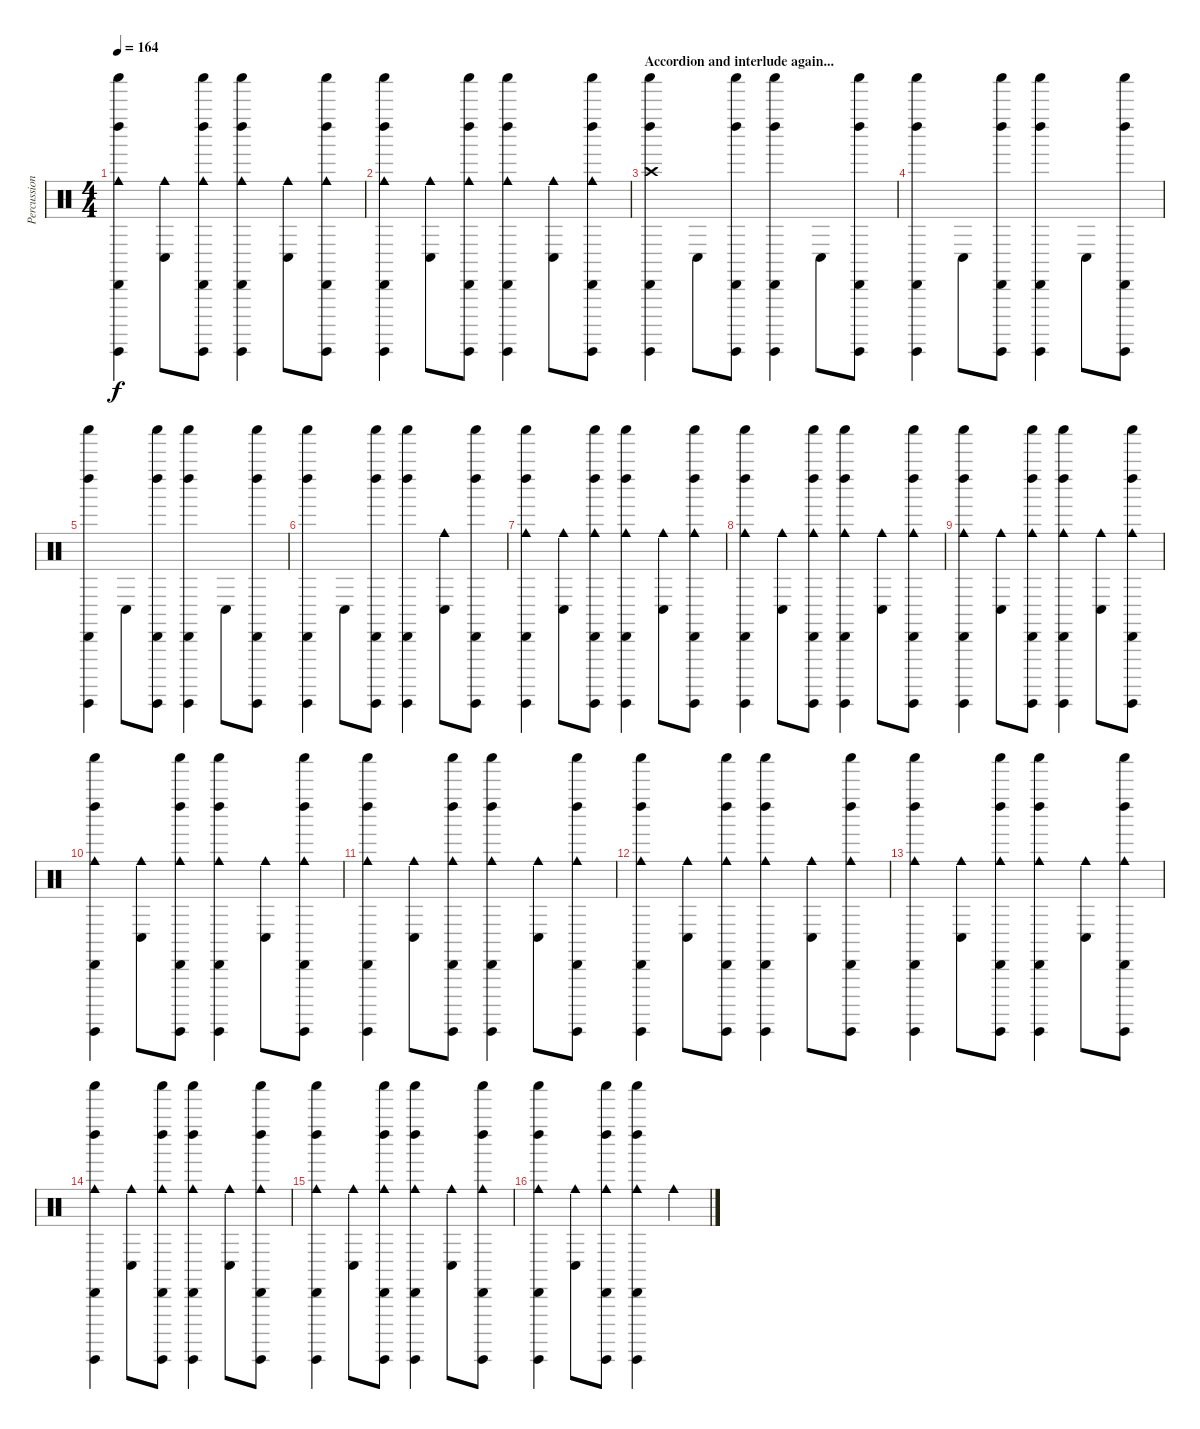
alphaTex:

\track ("Percussion" "Percussion") {instrument percussion}
\staff {score}
\articulation defaults
\ts (4 4)
\tempo 164
\clef neutral
\ks c
("Shaker (hit)" "Guiro (hit)" "Left Maraca (hit)" "Cabasa (hit)" "Cowbell medium (hit)").4{dy f} ("Conga low (hit)" "Cowbell medium (hit)").8 ("Shaker (hit)" "Guiro (hit)" "Left Maraca (hit)" "Cabasa (hit)" "Cowbell medium (hit)").8 ("Shaker (hit)" "Guiro (hit)" "Left Maraca (hit)" "Cabasa (hit)" "Cowbell medium (hit)").4 ("Conga low (hit)" "Cowbell medium (hit)").8 ("Shaker (hit)" "Guiro (hit)" "Left Maraca (hit)" "Cabasa (hit)" "Cowbell medium (hit)").8 |
("Shaker (hit)" "Guiro (hit)" "Left Maraca (hit)" "Cabasa (hit)" "Cowbell medium (hit)").4 ("Conga low (hit)" "Cowbell medium (hit)").8 ("Shaker (hit)" "Guiro (hit)" "Left Maraca (hit)" "Cabasa (hit)" "Cowbell medium (hit)").8 ("Shaker (hit)" "Guiro (hit)" "Left Maraca (hit)" "Cabasa (hit)" "Cowbell medium (hit)").4 ("Conga low (hit)" "Cowbell medium (hit)").8 ("Shaker (hit)" "Guiro (hit)" "Left Maraca (hit)" "Cabasa (hit)" "Cowbell medium (hit)").8 |
\section ("" "Accordion and interlude again...")
("Shaker (hit)" "Guiro (hit)" "Left Maraca (hit)" "Cabasa (hit)" "Crash high (hit)").4 "Conga low (hit)".8 ("Shaker (hit)" "Guiro (hit)" "Left Maraca (hit)" "Cabasa (hit)").8 ("Shaker (hit)" "Guiro (hit)" "Left Maraca (hit)" "Cabasa (hit)").4 "Conga low (hit)".8 ("Shaker (hit)" "Guiro (hit)" "Left Maraca (hit)" "Cabasa (hit)").8 |
("Shaker (hit)" "Guiro (hit)" "Left Maraca (hit)" "Cabasa (hit)").4 "Conga low (hit)".8 ("Shaker (hit)" "Guiro (hit)" "Left Maraca (hit)" "Cabasa (hit)").8 ("Shaker (hit)" "Guiro (hit)" "Left Maraca (hit)" "Cabasa (hit)").4 "Conga low (hit)".8 ("Shaker (hit)" "Guiro (hit)" "Left Maraca (hit)" "Cabasa (hit)").8 |
("Shaker (hit)" "Guiro (hit)" "Left Maraca (hit)" "Cabasa (hit)").4 "Conga low (hit)".8 ("Shaker (hit)" "Guiro (hit)" "Left Maraca (hit)" "Cabasa (hit)").8 ("Shaker (hit)" "Guiro (hit)" "Left Maraca (hit)" "Cabasa (hit)").4 "Conga low (hit)".8 ("Shaker (hit)" "Guiro (hit)" "Left Maraca (hit)" "Cabasa (hit)").8 |
("Shaker (hit)" "Guiro (hit)" "Left Maraca (hit)" "Cabasa (hit)").4 "Conga low (hit)".8 ("Shaker (hit)" "Guiro (hit)" "Left Maraca (hit)" "Cabasa (hit)").8 ("Shaker (hit)" "Guiro (hit)" "Left Maraca (hit)" "Cabasa (hit)").4 ("Conga low (hit)" "Cowbell medium (hit)").8 ("Shaker (hit)" "Guiro (hit)" "Left Maraca (hit)" "Cabasa (hit)").8 |
("Shaker (hit)" "Guiro (hit)" "Left Maraca (hit)" "Cabasa (hit)" "Cowbell medium (hit)").4 ("Conga low (hit)" "Cowbell medium (hit)").8 ("Shaker (hit)" "Guiro (hit)" "Left Maraca (hit)" "Cabasa (hit)" "Cowbell medium (hit)").8 ("Shaker (hit)" "Guiro (hit)" "Left Maraca (hit)" "Cabasa (hit)" "Cowbell medium (hit)").4 ("Conga low (hit)" "Cowbell medium (hit)").8 ("Shaker (hit)" "Guiro (hit)" "Left Maraca (hit)" "Cabasa (hit)" "Cowbell medium (hit)").8 |
("Shaker (hit)" "Guiro (hit)" "Left Maraca (hit)" "Cabasa (hit)" "Cowbell medium (hit)").4 ("Conga low (hit)" "Cowbell medium (hit)").8 ("Shaker (hit)" "Guiro (hit)" "Left Maraca (hit)" "Cabasa (hit)" "Cowbell medium (hit)").8 ("Shaker (hit)" "Guiro (hit)" "Left Maraca (hit)" "Cabasa (hit)" "Cowbell medium (hit)").4 ("Conga low (hit)" "Cowbell medium (hit)").8 ("Shaker (hit)" "Guiro (hit)" "Left Maraca (hit)" "Cabasa (hit)" "Cowbell medium (hit)").8 |
("Shaker (hit)" "Guiro (hit)" "Left Maraca (hit)" "Cabasa (hit)" "Cowbell medium (hit)").4 ("Conga low (hit)" "Cowbell medium (hit)").8 ("Shaker (hit)" "Guiro (hit)" "Left Maraca (hit)" "Cabasa (hit)" "Cowbell medium (hit)").8 ("Shaker (hit)" "Guiro (hit)" "Left Maraca (hit)" "Cabasa (hit)" "Cowbell medium (hit)").4 ("Conga low (hit)" "Cowbell medium (hit)").8 ("Shaker (hit)" "Guiro (hit)" "Left Maraca (hit)" "Cabasa (hit)" "Cowbell medium (hit)").8 |
("Shaker (hit)" "Guiro (hit)" "Left Maraca (hit)" "Cabasa (hit)" "Cowbell medium (hit)").4 ("Conga low (hit)" "Cowbell medium (hit)").8 ("Shaker (hit)" "Guiro (hit)" "Left Maraca (hit)" "Cabasa (hit)" "Cowbell medium (hit)").8 ("Shaker (hit)" "Guiro (hit)" "Left Maraca (hit)" "Cabasa (hit)" "Cowbell medium (hit)").4 ("Conga low (hit)" "Cowbell medium (hit)").8 ("Shaker (hit)" "Guiro (hit)" "Left Maraca (hit)" "Cabasa (hit)" "Cowbell medium (hit)").8 |
("Shaker (hit)" "Guiro (hit)" "Left Maraca (hit)" "Cabasa (hit)" "Cowbell medium (hit)").4 ("Conga low (hit)" "Cowbell medium (hit)").8 ("Shaker (hit)" "Guiro (hit)" "Left Maraca (hit)" "Cabasa (hit)" "Cowbell medium (hit)").8 ("Shaker (hit)" "Guiro (hit)" "Left Maraca (hit)" "Cabasa (hit)" "Cowbell medium (hit)").4 ("Conga low (hit)" "Cowbell medium (hit)").8 ("Shaker (hit)" "Guiro (hit)" "Left Maraca (hit)" "Cabasa (hit)" "Cowbell medium (hit)").8 |
("Shaker (hit)" "Guiro (hit)" "Left Maraca (hit)" "Cabasa (hit)" "Cowbell medium (hit)").4 ("Conga low (hit)" "Cowbell medium (hit)").8 ("Shaker (hit)" "Guiro (hit)" "Left Maraca (hit)" "Cabasa (hit)" "Cowbell medium (hit)").8 ("Shaker (hit)" "Guiro (hit)" "Left Maraca (hit)" "Cabasa (hit)" "Cowbell medium (hit)").4 ("Conga low (hit)" "Cowbell medium (hit)").8 ("Shaker (hit)" "Guiro (hit)" "Left Maraca (hit)" "Cabasa (hit)" "Cowbell medium (hit)").8 |
("Shaker (hit)" "Guiro (hit)" "Left Maraca (hit)" "Cabasa (hit)" "Cowbell medium (hit)").4 ("Conga low (hit)" "Cowbell medium (hit)").8 ("Shaker (hit)" "Guiro (hit)" "Left Maraca (hit)" "Cabasa (hit)" "Cowbell medium (hit)").8 ("Shaker (hit)" "Guiro (hit)" "Left Maraca (hit)" "Cabasa (hit)" "Cowbell medium (hit)").4 ("Conga low (hit)" "Cowbell medium (hit)").8 ("Shaker (hit)" "Guiro (hit)" "Left Maraca (hit)" "Cabasa (hit)" "Cowbell medium (hit)").8 |
("Shaker (hit)" "Guiro (hit)" "Left Maraca (hit)" "Cabasa (hit)" "Cowbell medium (hit)").4 ("Conga low (hit)" "Cowbell medium (hit)").8 ("Shaker (hit)" "Guiro (hit)" "Left Maraca (hit)" "Cabasa (hit)" "Cowbell medium (hit)").8 ("Shaker (hit)" "Guiro (hit)" "Left Maraca (hit)" "Cabasa (hit)" "Cowbell medium (hit)").4 ("Conga low (hit)" "Cowbell medium (hit)").8 ("Shaker (hit)" "Guiro (hit)" "Left Maraca (hit)" "Cabasa (hit)" "Cowbell medium (hit)").8 |
("Shaker (hit)" "Guiro (hit)" "Left Maraca (hit)" "Cabasa (hit)" "Cowbell medium (hit)").4 ("Conga low (hit)" "Cowbell medium (hit)").8 ("Shaker (hit)" "Guiro (hit)" "Left Maraca (hit)" "Cabasa (hit)" "Cowbell medium (hit)").8 ("Shaker (hit)" "Guiro (hit)" "Left Maraca (hit)" "Cabasa (hit)" "Cowbell medium (hit)").4 ("Conga low (hit)" "Cowbell medium (hit)").8 ("Shaker (hit)" "Guiro (hit)" "Left Maraca (hit)" "Cabasa (hit)" "Cowbell medium (hit)").8 |
("Shaker (hit)" "Guiro (hit)" "Left Maraca (hit)" "Cabasa (hit)" "Cowbell medium (hit)").4 ("Conga low (hit)" "Cowbell medium (hit)").8 ("Shaker (hit)" "Guiro (hit)" "Left Maraca (hit)" "Cabasa (hit)" "Cowbell medium (hit)").8 ("Shaker (hit)" "Guiro (hit)" "Left Maraca (hit)" "Cabasa (hit)" "Cowbell medium (hit)").4 "Cowbell medium (hit)".4
